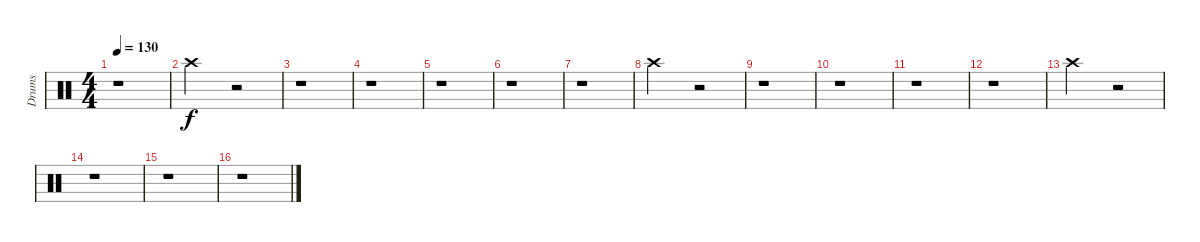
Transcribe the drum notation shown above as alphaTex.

\track ("Drums" "Drums") {instrument percussion}
\staff {score}
\articulation defaults
\ts (4 4)
\tempo 130
\clef neutral
\ks c
r.1{dy f} |
"Crash high (hit)".2 r.2 |
r.1 |
r.1 |
r.1 |
r.1 |
r.1 |
"Crash high (hit)".2 r.2 |
r.1 |
r.1 |
r.1 |
r.1 |
"Crash high (hit)".2 r.2 |
r.1 |
r.1 |
r.1
